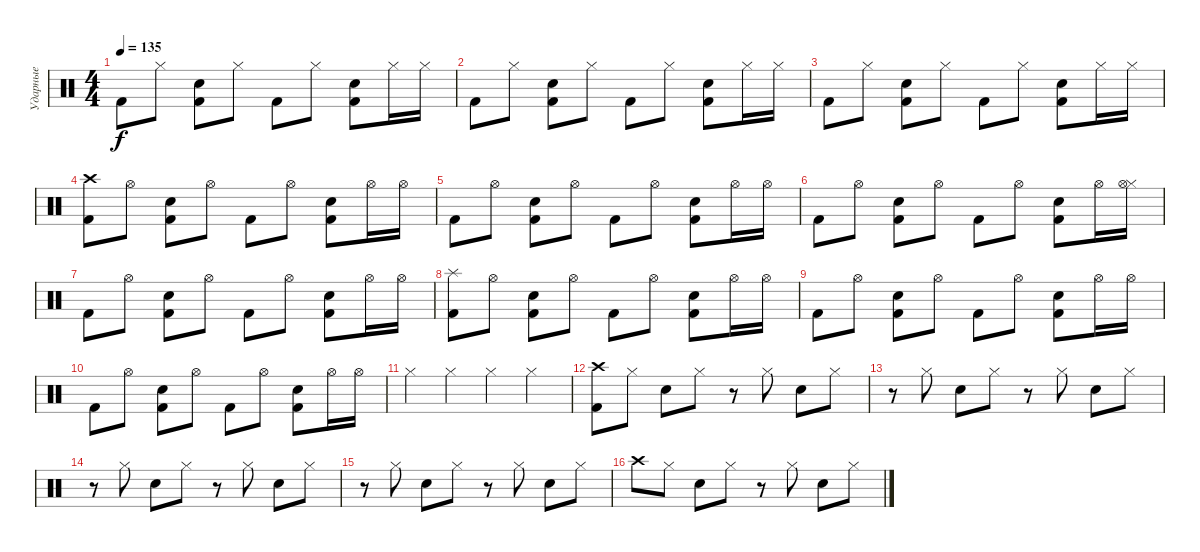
\track ("Ударные" "Ударные") {instrument percussion}
\staff {score}
\articulation defaults
\ts (4 4)
\tempo 135
\clef neutral
\ks c "Kick (hit) 2".8{dy f} "Hi-Hat (closed)".8
("Kick (hit) 2" "Hand Clap (hit)").8 "Hi-Hat (closed)".8 "Kick (hit) 2".8 "Hi-Hat (closed)".8 ("Kick (hit) 2" "Hand Clap (hit)").8 "Hi-Hat (closed)".16 "Hi-Hat (closed)".16 |
"Kick (hit) 2".8 "Hi-Hat (closed)".8 ("Kick (hit) 2" "Hand Clap (hit)").8 "Hi-Hat (closed)".8 "Kick (hit) 2".8 "Hi-Hat (closed)".8 ("Kick (hit) 2" "Hand Clap (hit)").8 "Hi-Hat (closed)".16 "Hi-Hat (closed)".16 |
"Kick (hit) 2".8 "Hi-Hat (closed)".8 ("Kick (hit) 2" "Hand Clap (hit)").8 "Hi-Hat (closed)".8 "Kick (hit) 2".8 "Hi-Hat (closed)".8 ("Kick (hit) 2" "Hand Clap (hit)").8 "Hi-Hat (closed)".16 "Hi-Hat (closed)".16 |
("Kick (hit) 2" "Crash high (hit)").8 "Hi-Hat (open)".8 ("Kick (hit) 2" "Hand Clap (hit)").8 "Hi-Hat (open)".8 "Kick (hit) 2".8 "Hi-Hat (open)".8 ("Kick (hit) 2" "Hand Clap (hit)").8 "Hi-Hat (open)".16 "Hi-Hat (open)".16 |
"Kick (hit) 2".8 "Hi-Hat (open)".8 ("Kick (hit) 2" "Hand Clap (hit)").8 "Hi-Hat (open)".8 "Kick (hit) 2".8 "Hi-Hat (open)".8 ("Kick (hit) 2" "Hand Clap (hit)").8 "Hi-Hat (open)".16 "Hi-Hat (open)".16 |
"Kick (hit) 2".8 "Hi-Hat (open)".8 ("Kick (hit) 2" "Hand Clap (hit)").8 "Hi-Hat (open)".8 "Kick (hit) 2".8 "Hi-Hat (open)".8 ("Kick (hit) 2" "Hand Clap (hit)").8 "Hi-Hat (open)".16 ("Hi-Hat (closed)" "Hi-Hat (open)").16 |
"Kick (hit) 2".8 "Hi-Hat (open)".8 ("Kick (hit) 2" "Hand Clap (hit)").8 "Hi-Hat (open)".8 "Kick (hit) 2".8 "Hi-Hat (open)".8 ("Kick (hit) 2" "Hand Clap (hit)").8 "Hi-Hat (open)".16 "Hi-Hat (open)".16 |
("Kick (hit) 2" "Splash (hit)").8 "Hi-Hat (open)".8 ("Kick (hit) 2" "Hand Clap (hit)").8 "Hi-Hat (open)".8 "Kick (hit) 2".8 "Hi-Hat (open)".8 ("Kick (hit) 2" "Hand Clap (hit)").8 "Hi-Hat (open)".16 "Hi-Hat (open)".16 |
"Kick (hit) 2".8 "Hi-Hat (open)".8 ("Kick (hit) 2" "Hand Clap (hit)").8 "Hi-Hat (open)".8 "Kick (hit) 2".8 "Hi-Hat (open)".8 ("Kick (hit) 2" "Hand Clap (hit)").8 "Hi-Hat (open)".16 "Hi-Hat (open)".16 |
"Kick (hit) 2".8 "Hi-Hat (open)".8 ("Kick (hit) 2" "Hand Clap (hit)").8 "Hi-Hat (open)".8 "Kick (hit) 2".8 "Hi-Hat (open)".8 ("Kick (hit) 2" "Hand Clap (hit)").8 "Hi-Hat (open)".16 "Hi-Hat (open)".16 |
"Hi-Hat (closed)".4 "Hi-Hat (closed)".4 "Hi-Hat (closed)".4 "Hi-Hat (closed)".4 |
("Kick (hit) 2" "Crash high (hit)").8 "Hi-Hat (closed)".8 "Hand Clap (hit)".8 "Hi-Hat (closed)".8 r.8 "Hi-Hat (closed)".8 "Hand Clap (hit)".8 "Hi-Hat (closed)".8 |
r.8 "Hi-Hat (closed)".8 "Hand Clap (hit)".8 "Hi-Hat (closed)".8 r.8 "Hi-Hat (closed)".8 "Hand Clap (hit)".8 "Hi-Hat (closed)".8 |
r.8 "Hi-Hat (closed)".8 "Hand Clap (hit)".8 "Hi-Hat (closed)".8 r.8 "Hi-Hat (closed)".8 "Hand Clap (hit)".8 "Hi-Hat (closed)".8 |
r.8 "Hi-Hat (closed)".8 "Hand Clap (hit)".8 "Hi-Hat (closed)".8 r.8 "Hi-Hat (closed)".8 "Hand Clap (hit)".8 "Hi-Hat (closed)".8 |
"Crash high (hit)".8 "Hi-Hat (closed)".8 "Hand Clap (hit)".8 "Hi-Hat (closed)".8 r.8 "Hi-Hat (closed)".8 "Hand Clap (hit)".8 "Hi-Hat (closed)".8
